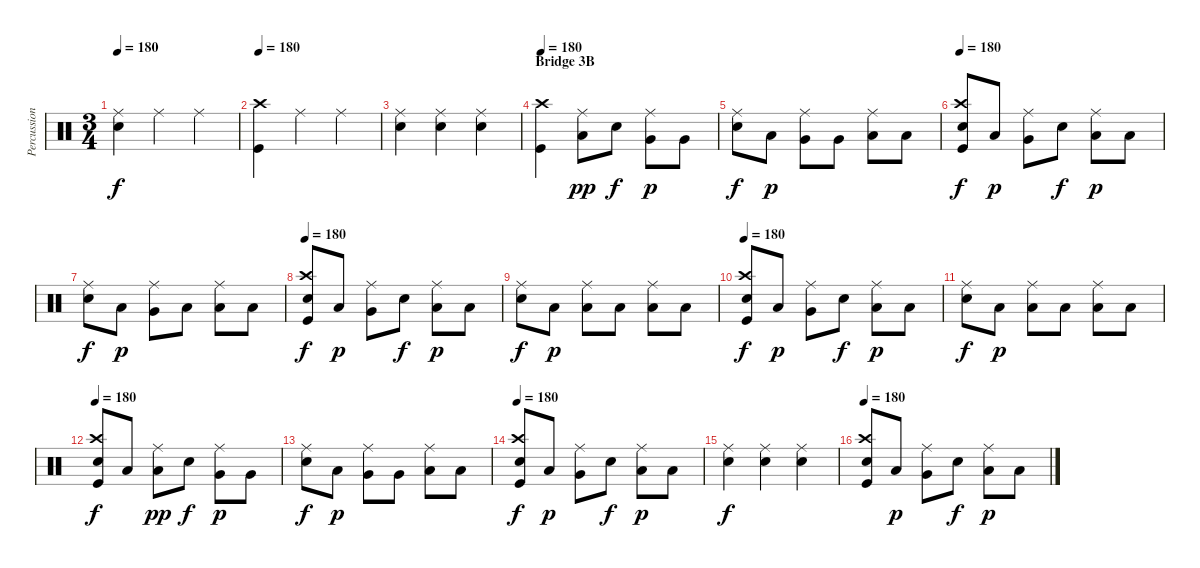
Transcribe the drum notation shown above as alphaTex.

\track ("Percussion" "Percussion") {instrument percussion}
\staff {score}
\articulation defaults
\ts (3 4)
\tempo 180
\clef neutral
\ks c
("Ride (middle)" "Electric Snare (hit)").4{dy f} "Ride (middle)".4 "Ride (middle)".4 |
\tempo 180
("Crash high (hit)" "Kick (hit)").4 "Ride (middle)".4 "Ride (middle)".4 |
("Ride (middle)" "Electric Snare (hit)").4 ("Ride (middle)" "Electric Snare (hit)").4 ("Ride (middle)" "Electric Snare (hit)").4 |
\section ("" "Bridge 3B")
\tempo 180
("Crash high (hit)" "Kick (hit)").4 ("Ride (middle)" "Low Tom (hit)").8{dy pp} "Electric Snare (hit)".8{dy f} ("Ride (middle)" "Very Low Tom (hit)").8{dy p} "Very Low Tom (hit)".8 |
("Ride (middle)" "Electric Snare (hit)").8{dy f} "Low Tom (hit)".8{dy p} ("Ride (middle)" "Very Low Tom (hit)").8 "Very Low Tom (hit)".8 ("Ride (middle)" "Low Floor Tom (hit)").8 "Low Floor Tom (hit)".8 |
\tempo 180
("Crash high (hit)" "Electric Snare (hit)" "Kick (hit)").8{dy f} "Low Tom (hit)".8{dy p} ("Ride (middle)" "Very Low Tom (hit)").8 "Electric Snare (hit)".8{dy f} ("Ride (middle)" "Low Floor Tom (hit)").8{dy p} "Low Floor Tom (hit)".8 |
("Ride (middle)" "Electric Snare (hit)").8{dy f} "Low Tom (hit)".8{dy p} ("Ride (middle)" "Very Low Tom (hit)").8 "Low Floor Tom (hit)".8 ("Ride (middle)" "Low Floor Tom (hit)").8 "Low Floor Tom (hit)".8 |
\tempo 180
("Crash high (hit)" "Electric Snare (hit)" "Kick (hit)").8{dy f} "Low Tom (hit)".8{dy p} ("Ride (middle)" "Very Low Tom (hit)").8 "Electric Snare (hit)".8{dy f} ("Ride (middle)" "Low Floor Tom (hit)").8{dy p} "Low Floor Tom (hit)".8 |
("Ride (middle)" "Electric Snare (hit)").8{dy f} "Low Tom (hit)".8{dy p} ("Ride (middle)" "Low Floor Tom (hit)").8 "Low Floor Tom (hit)".8 ("Ride (middle)" "Low Floor Tom (hit)").8 "Low Floor Tom (hit)".8 |
\tempo 180
("Crash high (hit)" "Electric Snare (hit)" "Kick (hit)").8{dy f} "Low Tom (hit)".8{dy p} ("Ride (middle)" "Very Low Tom (hit)").8 "Electric Snare (hit)".8{dy f} ("Ride (middle)" "Low Floor Tom (hit)").8{dy p} "Low Floor Tom (hit)".8 |
("Ride (middle)" "Electric Snare (hit)").8{dy f} "Low Tom (hit)".8{dy p} ("Ride (middle)" "Low Floor Tom (hit)").8 "Low Floor Tom (hit)".8 ("Ride (middle)" "Low Floor Tom (hit)").8 "Low Floor Tom (hit)".8 |
\tempo 180
("Crash high (hit)" "Electric Snare (hit)" "Kick (hit)").8{dy f} "Low Tom (hit)".8 ("Ride (middle)" "Low Tom (hit)").8{dy pp} "Electric Snare (hit)".8{dy f} ("Ride (middle)" "Very Low Tom (hit)").8{dy p} "Very Low Tom (hit)".8 |
("Ride (middle)" "Electric Snare (hit)").8{dy f} "Low Tom (hit)".8{dy p} ("Ride (middle)" "Very Low Tom (hit)").8 "Very Low Tom (hit)".8 ("Ride (middle)" "Low Floor Tom (hit)").8 "Low Floor Tom (hit)".8 |
\tempo 180
("Crash high (hit)" "Electric Snare (hit)" "Kick (hit)").8{dy f} "Low Tom (hit)".8{dy p} ("Ride (middle)" "Very Low Tom (hit)").8 "Electric Snare (hit)".8{dy f} ("Ride (middle)" "Low Floor Tom (hit)").8{dy p} "Low Floor Tom (hit)".8 |
("Ride (middle)" "Electric Snare (hit)").4{dy f} ("Ride (middle)" "Electric Snare (hit)").4 ("Ride (middle)" "Electric Snare (hit)").4 |
\tempo 180
("Crash high (hit)" "Electric Snare (hit)" "Kick (hit)").8 "Low Tom (hit)".8{dy p} ("Ride (middle)" "Very Low Tom (hit)").8 "Electric Snare (hit)".8{dy f} ("Ride (middle)" "Low Floor Tom (hit)").8{dy p} "Low Floor Tom (hit)".8
